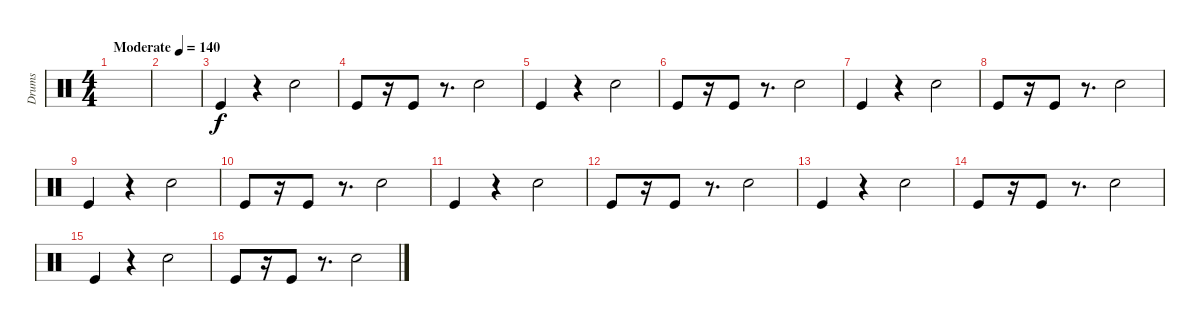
\track ("Drums" "Drums") {instrument percussion}
\staff {score}
\articulation defaults
\ts (4 4)
\tempo (140 "Moderate")
\clef neutral
\ks c
|
|
"Kick (hit)".4 r.4 "Electric Snare (hit)".2 |
"Kick (hit)".8 r.16 "Kick (hit)".8 r.8{d} "Electric Snare (hit)".2 |
"Kick (hit)".4 r.4 "Electric Snare (hit)".2 |
"Kick (hit)".8 r.16 "Kick (hit)".8 r.8{d} "Electric Snare (hit)".2 |
"Kick (hit)".4 r.4 "Electric Snare (hit)".2 |
"Kick (hit)".8 r.16 "Kick (hit)".8 r.8{d} "Electric Snare (hit)".2 |
"Kick (hit)".4 r.4 "Electric Snare (hit)".2 |
"Kick (hit)".8 r.16 "Kick (hit)".8 r.8{d} "Electric Snare (hit)".2 |
"Kick (hit)".4 r.4 "Electric Snare (hit)".2 |
"Kick (hit)".8 r.16 "Kick (hit)".8 r.8{d} "Electric Snare (hit)".2 |
"Kick (hit)".4 r.4 "Electric Snare (hit)".2 |
"Kick (hit)".8 r.16 "Kick (hit)".8 r.8{d} "Electric Snare (hit)".2 |
"Kick (hit)".4 r.4 "Electric Snare (hit)".2 |
"Kick (hit)".8 r.16 "Kick (hit)".8 r.8{d} "Electric Snare (hit)".2
